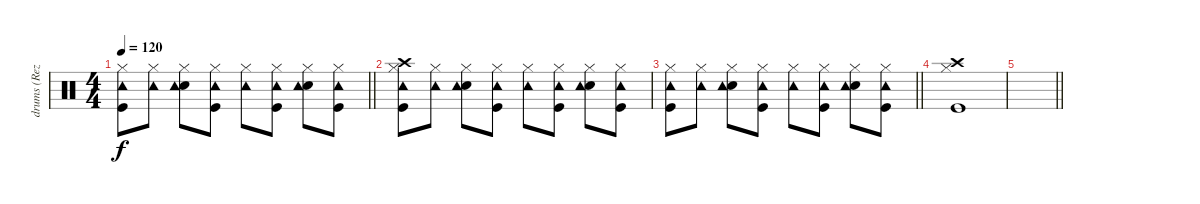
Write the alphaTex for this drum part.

\track ("drums (Reza)" "drums (Rez") {instrument percussion}
\staff {score}
\articulation defaults
\ts (4 4)
\tempo 120
\clef neutral
\barLineRight lightlight
\ks c
("Hi-Hat (closed)" "Kick (hit)" "Tambourine (hit)").8{dy f} ("Hi-Hat (closed)" "Tambourine (hit)").8 ("Hi-Hat (closed)" "Snare (hit) 2" "Tambourine (hit)").8 ("Hi-Hat (closed)" "Kick (hit)" "Tambourine (hit)").8 ("Hi-Hat (closed)" "Tambourine (hit)").8 ("Hi-Hat (closed)" "Kick (hit)" "Tambourine (hit)").8 ("Hi-Hat (closed)" "Snare (hit) 2" "Tambourine (hit)").8 ("Hi-Hat (closed)" "Kick (hit)" "Tambourine (hit)").8 |
("Hi-Hat (closed)" "Kick (hit)" "Crash high (hit)" "Tambourine (hit)").8 ("Hi-Hat (closed)" "Tambourine (hit)").8 ("Hi-Hat (closed)" "Snare (hit) 2" "Tambourine (hit)").8 ("Hi-Hat (closed)" "Kick (hit)" "Tambourine (hit)").8 ("Hi-Hat (closed)" "Tambourine (hit)").8 ("Hi-Hat (closed)" "Kick (hit)" "Tambourine (hit)").8 ("Hi-Hat (closed)" "Snare (hit) 2" "Tambourine (hit)").8 ("Hi-Hat (closed)" "Kick (hit)" "Tambourine (hit)").8 |
\barLineRight lightlight
("Hi-Hat (closed)" "Kick (hit)" "Tambourine (hit)").8 ("Hi-Hat (closed)" "Tambourine (hit)").8 ("Hi-Hat (closed)" "Snare (hit) 2" "Tambourine (hit)").8 ("Hi-Hat (closed)" "Kick (hit)" "Tambourine (hit)").8 ("Hi-Hat (closed)" "Tambourine (hit)").8 ("Hi-Hat (closed)" "Kick (hit)" "Tambourine (hit)").8 ("Hi-Hat (closed)" "Snare (hit) 2" "Tambourine (hit)").8 ("Hi-Hat (closed)" "Kick (hit)" "Tambourine (hit)").8 |
("Hi-Hat (closed)" "Kick (hit)" "Crash high (hit)").1 |
\barLineRight lightlight
